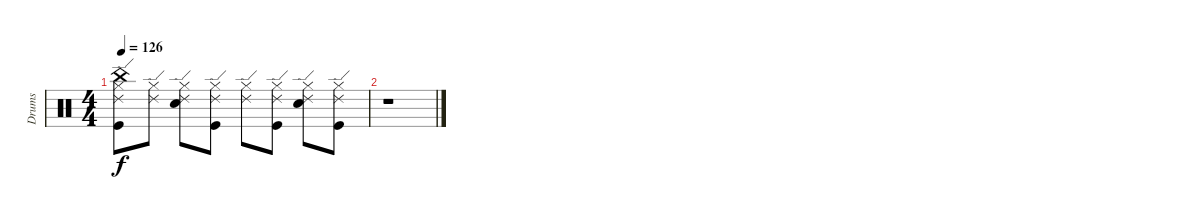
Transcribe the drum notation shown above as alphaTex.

\track ("Drums" "Drums") {instrument percussion}
\staff {score}
\articulation defaults
\ts (4 4)
\tempo 126
\clef neutral
\ks c
("Hi-Hat (closed)" "China (hit)" "Ride (edge) 2" "Kick (hit)").8{dy f} ("Hi-Hat (closed)" "Ride (edge) 2").8 ("Hi-Hat (closed)" "Ride (edge) 2" "Electric Snare (hit)").8 ("Hi-Hat (closed)" "Ride (edge) 2" "Kick (hit)").8 ("Hi-Hat (closed)" "Ride (edge) 2").8 ("Hi-Hat (closed)" "Ride (edge) 2" "Kick (hit)").8 ("Hi-Hat (closed)" "Ride (edge) 2" "Electric Snare (hit)").8 ("Hi-Hat (closed)" "Ride (edge) 2" "Kick (hit)").8 |
r.1
